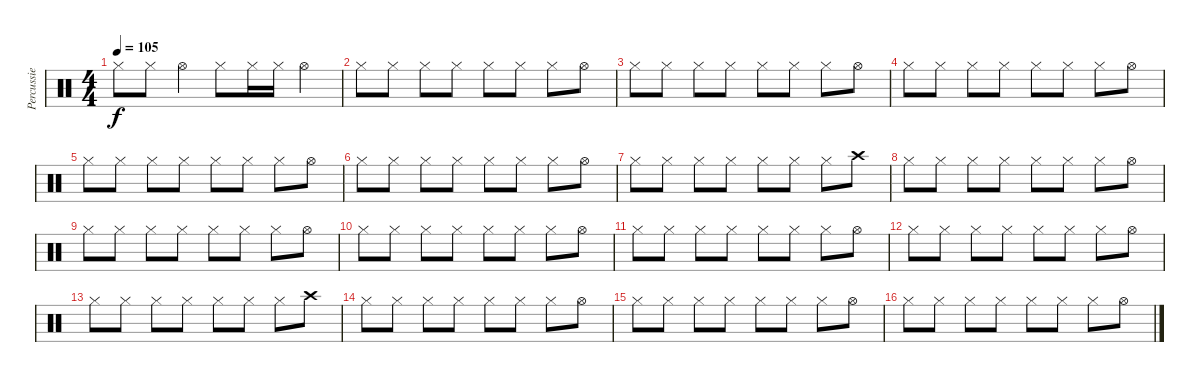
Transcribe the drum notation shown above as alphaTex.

\track ("Percussie" "Percussie") {instrument percussion}
\staff {score}
\articulation defaults
\ts (4 4)
\tempo 105
\clef neutral
\ks c "Hi-Hat (closed)".8{dy f} "Hi-Hat (closed)".8 "Hi-Hat (open)".4 "Hi-Hat (closed)".8 "Hi-Hat (closed)".16 "Hi-Hat (closed)".16 "Hi-Hat (open)".4
|
"Hi-Hat (closed)".8 "Hi-Hat (closed)".8 "Hi-Hat (closed)".8 "Hi-Hat (closed)".8 "Hi-Hat (closed)".8 "Hi-Hat (closed)".8 "Hi-Hat (closed)".8 "Hi-Hat (open)".8 |
"Hi-Hat (closed)".8 "Hi-Hat (closed)".8 "Hi-Hat (closed)".8 "Hi-Hat (closed)".8 "Hi-Hat (closed)".8 "Hi-Hat (closed)".8 "Hi-Hat (closed)".8 "Hi-Hat (open)".8 |
"Hi-Hat (closed)".8 "Hi-Hat (closed)".8 "Hi-Hat (closed)".8 "Hi-Hat (closed)".8 "Hi-Hat (closed)".8 "Hi-Hat (closed)".8 "Hi-Hat (closed)".8 "Hi-Hat (open)".8 |
"Hi-Hat (closed)".8 "Hi-Hat (closed)".8 "Hi-Hat (closed)".8 "Hi-Hat (closed)".8 "Hi-Hat (closed)".8 "Hi-Hat (closed)".8 "Hi-Hat (closed)".8 "Hi-Hat (open)".8 |
"Hi-Hat (closed)".8 "Hi-Hat (closed)".8 "Hi-Hat (closed)".8 "Hi-Hat (closed)".8 "Hi-Hat (closed)".8 "Hi-Hat (closed)".8 "Hi-Hat (closed)".8 "Hi-Hat (open)".8 |
"Hi-Hat (closed)".8 "Hi-Hat (closed)".8 "Hi-Hat (closed)".8 "Hi-Hat (closed)".8 "Hi-Hat (closed)".8 "Hi-Hat (closed)".8 "Hi-Hat (closed)".8 "Crash high (hit)".8 |
"Hi-Hat (closed)".8 "Hi-Hat (closed)".8 "Hi-Hat (closed)".8 "Hi-Hat (closed)".8 "Hi-Hat (closed)".8 "Hi-Hat (closed)".8 "Hi-Hat (closed)".8 "Hi-Hat (open)".8 |
"Hi-Hat (closed)".8 "Hi-Hat (closed)".8 "Hi-Hat (closed)".8 "Hi-Hat (closed)".8 "Hi-Hat (closed)".8 "Hi-Hat (closed)".8 "Hi-Hat (closed)".8 "Hi-Hat (open)".8 |
"Hi-Hat (closed)".8 "Hi-Hat (closed)".8 "Hi-Hat (closed)".8 "Hi-Hat (closed)".8 "Hi-Hat (closed)".8 "Hi-Hat (closed)".8 "Hi-Hat (closed)".8 "Hi-Hat (open)".8 |
"Hi-Hat (closed)".8 "Hi-Hat (closed)".8 "Hi-Hat (closed)".8 "Hi-Hat (closed)".8 "Hi-Hat (closed)".8 "Hi-Hat (closed)".8 "Hi-Hat (closed)".8 "Hi-Hat (open)".8 |
"Hi-Hat (closed)".8 "Hi-Hat (closed)".8 "Hi-Hat (closed)".8 "Hi-Hat (closed)".8 "Hi-Hat (closed)".8 "Hi-Hat (closed)".8 "Hi-Hat (closed)".8 "Hi-Hat (open)".8 |
"Hi-Hat (closed)".8 "Hi-Hat (closed)".8 "Hi-Hat (closed)".8 "Hi-Hat (closed)".8 "Hi-Hat (closed)".8 "Hi-Hat (closed)".8 "Hi-Hat (closed)".8 "Crash high (hit)".8 |
"Hi-Hat (closed)".8 "Hi-Hat (closed)".8 "Hi-Hat (closed)".8 "Hi-Hat (closed)".8 "Hi-Hat (closed)".8 "Hi-Hat (closed)".8 "Hi-Hat (closed)".8 "Hi-Hat (open)".8 |
"Hi-Hat (closed)".8 "Hi-Hat (closed)".8 "Hi-Hat (closed)".8 "Hi-Hat (closed)".8 "Hi-Hat (closed)".8 "Hi-Hat (closed)".8 "Hi-Hat (closed)".8 "Hi-Hat (open)".8 |
"Hi-Hat (closed)".8 "Hi-Hat (closed)".8 "Hi-Hat (closed)".8 "Hi-Hat (closed)".8 "Hi-Hat (closed)".8 "Hi-Hat (closed)".8 "Hi-Hat (closed)".8 "Hi-Hat (open)".8
